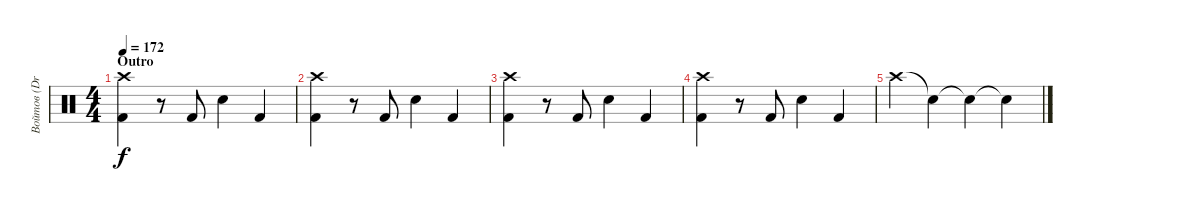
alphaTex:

\track ("Войтов (Drums)" "Войтов (Dr") {instrument percussion}
\staff {score}
\articulation defaults
\ts (4 4)
\section ("" "Outro")
\tempo 172
\clef neutral
\ks c
("Kick (hit) 2" "Crash high (hit)").4{dy f} r.8 "Kick (hit) 2".8 "Electric Snare (hit)".4 "Kick (hit) 2".4 |
("Kick (hit) 2" "Crash high (hit)").4 r.8 "Kick (hit) 2".8 "Electric Snare (hit)".4 "Kick (hit) 2".4 |
("Kick (hit) 2" "Crash high (hit)").4 r.8 "Kick (hit) 2".8 "Electric Snare (hit)".4 "Kick (hit) 2".4 |
("Kick (hit) 2" "Crash high (hit)").4 r.8 "Kick (hit) 2".8 "Electric Snare (hit)".4 "Kick (hit) 2".4 |
"Crash high (hit)".4 "Snare (hit)"{t}.4 "Snare (hit)"{t}.4 "Snare (hit)"{t}.4
